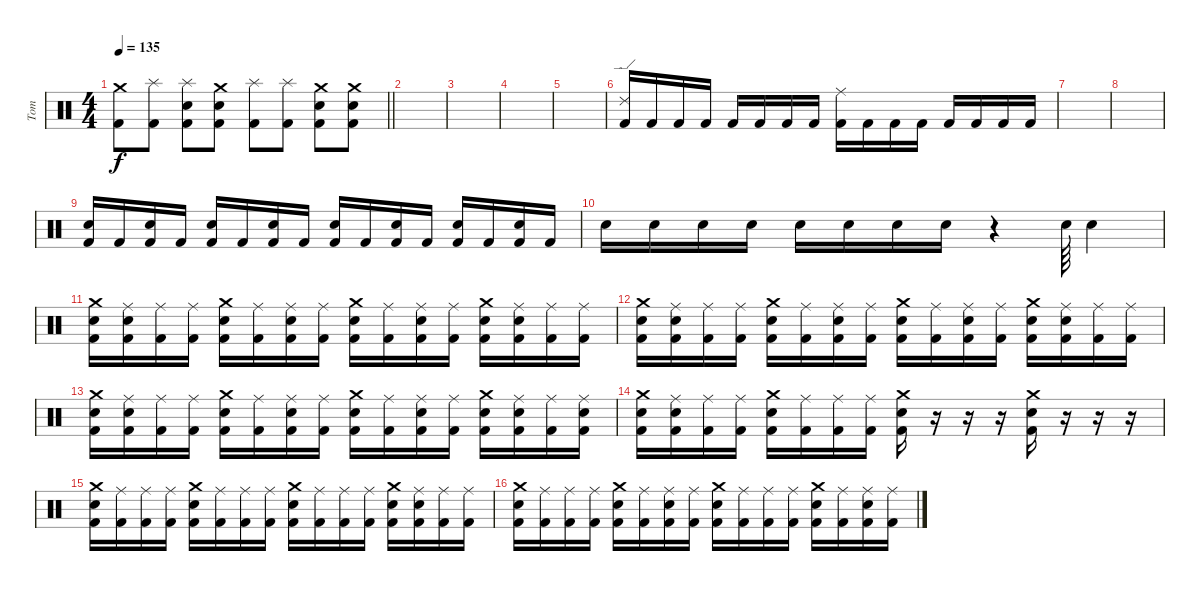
\track ("Tom" "Tom") {instrument percussion}
\staff {score}
\articulation defaults
\ts (4 4)
\tempo 135
\clef neutral
\barLineRight lightlight
\ks c
("Crash medium (hit)" "Kick (hit) 2").8{dy f} ("Splash (hit)" "Kick (hit) 2").8 ("Splash (hit)" "Electric Snare (hit)" "Kick (hit) 2").8 ("Crash medium (hit)" "Electric Snare (hit)" "Kick (hit) 2").8 ("Splash (hit)" "Kick (hit) 2").8 ("Splash (hit)" "Kick (hit) 2").8 ("Crash medium (hit)" "Electric Snare (hit)" "Kick (hit) 2").8 ("Crash medium (hit)" "Electric Snare (hit)" "Kick (hit) 2").8 |
|
|
|
|
("Ride (edge) 2" "Kick (hit) 2").16 "Kick (hit) 2".16 "Kick (hit) 2".16 "Kick (hit) 2".16 "Kick (hit) 2".16 "Kick (hit) 2".16 "Kick (hit) 2".16 "Kick (hit) 2".16 ("Ride (middle)" "Kick (hit) 2").16 "Kick (hit) 2".16 "Kick (hit) 2".16 "Kick (hit) 2".16 "Kick (hit) 2".16 "Kick (hit) 2".16 "Kick (hit) 2".16 "Kick (hit) 2".16 |
|
|
("Electric Snare (hit)" "Kick (hit) 2").16 "Kick (hit) 2".16 ("Electric Snare (hit)" "Kick (hit) 2").16 "Kick (hit) 2".16 ("Electric Snare (hit)" "Kick (hit) 2").16 "Kick (hit) 2".16 ("Electric Snare (hit)" "Kick (hit) 2").16 "Kick (hit) 2".16 ("Electric Snare (hit)" "Kick (hit) 2").16 "Kick (hit) 2".16 ("Electric Snare (hit)" "Kick (hit) 2").16 "Kick (hit) 2".16 ("Electric Snare (hit)" "Kick (hit) 2").16 "Kick (hit) 2".16 ("Electric Snare (hit)" "Kick (hit) 2").16 "Kick (hit) 2".16 |
"Electric Snare (hit)".16 "Electric Snare (hit)".16 "Electric Snare (hit)".16 "Electric Snare (hit)".16 "Electric Snare (hit)".16 "Electric Snare (hit)".16 "Electric Snare (hit)".16 "Electric Snare (hit)".16 r.4 "Electric Snare (hit)".64 "Electric Snare (hit)".4 |
("Crash medium (hit)" "Electric Snare (hit)" "Kick (hit) 2").16 ("Ride (middle)" "Electric Snare (hit)" "Kick (hit) 2").16 ("Ride (middle)" "Kick (hit) 2").16 ("Ride (middle)" "Kick (hit) 2").16 ("Crash medium (hit)" "Electric Snare (hit)" "Kick (hit) 2").16 ("Ride (middle)" "Kick (hit) 2").16 ("Ride (middle)" "Electric Snare (hit)" "Kick (hit) 2").16 ("Ride (middle)" "Kick (hit) 2").16 ("Crash medium (hit)" "Electric Snare (hit)" "Kick (hit) 2").16 ("Ride (middle)" "Kick (hit) 2").16 ("Ride (middle)" "Electric Snare (hit)" "Kick (hit) 2").16 ("Ride (middle)" "Kick (hit) 2").16 ("Crash medium (hit)" "Electric Snare (hit)" "Kick (hit) 2").16 ("Ride (middle)" "Electric Snare (hit)" "Kick (hit) 2").16 ("Ride (middle)" "Kick (hit) 2").16 ("Ride (middle)" "Kick (hit) 2").16 |
("Crash medium (hit)" "Electric Snare (hit)" "Kick (hit) 2").16 ("Ride (middle)" "Electric Snare (hit)" "Kick (hit) 2").16 ("Ride (middle)" "Kick (hit) 2").16 ("Ride (middle)" "Kick (hit) 2").16 ("Crash medium (hit)" "Electric Snare (hit)" "Kick (hit) 2").16 ("Ride (middle)" "Kick (hit) 2").16 ("Ride (middle)" "Electric Snare (hit)" "Kick (hit) 2").16 ("Ride (middle)" "Kick (hit) 2").16 ("Crash medium (hit)" "Electric Snare (hit)" "Kick (hit) 2").16 ("Ride (middle)" "Kick (hit) 2").16 ("Ride (middle)" "Electric Snare (hit)" "Kick (hit) 2").16 ("Ride (middle)" "Kick (hit) 2").16 ("Crash medium (hit)" "Electric Snare (hit)" "Kick (hit) 2").16 ("Ride (middle)" "Electric Snare (hit)" "Kick (hit) 2").16 ("Ride (middle)" "Kick (hit) 2").16 ("Ride (middle)" "Kick (hit) 2").16 |
("Crash medium (hit)" "Electric Snare (hit)" "Kick (hit) 2").16 ("Ride (middle)" "Electric Snare (hit)" "Kick (hit) 2").16 ("Ride (middle)" "Kick (hit) 2").16 ("Ride (middle)" "Kick (hit) 2").16 ("Crash medium (hit)" "Electric Snare (hit)" "Kick (hit) 2").16 ("Ride (middle)" "Kick (hit) 2").16 ("Ride (middle)" "Electric Snare (hit)" "Kick (hit) 2").16 ("Ride (middle)" "Kick (hit) 2").16 ("Crash medium (hit)" "Electric Snare (hit)" "Kick (hit) 2").16 ("Ride (middle)" "Kick (hit) 2").16 ("Ride (middle)" "Electric Snare (hit)" "Kick (hit) 2").16 ("Ride (middle)" "Kick (hit) 2").16 ("Crash medium (hit)" "Electric Snare (hit)" "Kick (hit) 2").16 ("Ride (middle)" "Electric Snare (hit)" "Kick (hit) 2").16 ("Ride (middle)" "Kick (hit) 2").16 ("Ride (middle)" "Electric Snare (hit)" "Kick (hit) 2").16 |
("Crash medium (hit)" "Electric Snare (hit)" "Kick (hit) 2").16 ("Ride (middle)" "Electric Snare (hit)" "Kick (hit) 2").16 ("Ride (middle)" "Kick (hit) 2").16 ("Ride (middle)" "Kick (hit) 2").16 ("Crash medium (hit)" "Electric Snare (hit)" "Kick (hit) 2").16 ("Ride (middle)" "Kick (hit) 2").16 ("Ride (middle)" "Kick (hit) 2").16 ("Ride (middle)" "Kick (hit) 2").16 ("Crash medium (hit)" "Electric Snare (hit)" "Kick (hit) 2").16 r.16 r.16 r.16 ("Crash medium (hit)" "Electric Snare (hit)" "Kick (hit) 2").16 r.16 r.16 r.16 |
("Crash medium (hit)" "Electric Snare (hit)" "Kick (hit) 2").16 ("Ride (middle)" "Kick (hit) 2").16 ("Ride (middle)" "Kick (hit) 2").16 ("Ride (middle)" "Kick (hit) 2").16 ("Crash medium (hit)" "Electric Snare (hit)" "Kick (hit) 2").16 ("Ride (middle)" "Kick (hit) 2").16 ("Ride (middle)" "Kick (hit) 2").16 ("Ride (middle)" "Kick (hit) 2").16 ("Crash medium (hit)" "Electric Snare (hit)" "Kick (hit) 2").16 ("Ride (middle)" "Kick (hit) 2").16 ("Ride (middle)" "Kick (hit) 2").16 ("Ride (middle)" "Kick (hit) 2").16 ("Crash medium (hit)" "Electric Snare (hit)" "Kick (hit) 2").16 ("Ride (middle)" "Electric Snare (hit)" "Kick (hit) 2").16 ("Ride (middle)" "Kick (hit) 2").16 ("Ride (middle)" "Kick (hit) 2").16 |
("Crash medium (hit)" "Electric Snare (hit)" "Kick (hit) 2").16 ("Ride (middle)" "Kick (hit) 2").16 ("Ride (middle)" "Kick (hit) 2").16 ("Ride (middle)" "Kick (hit) 2").16 ("Crash medium (hit)" "Electric Snare (hit)" "Kick (hit) 2").16 ("Ride (middle)" "Kick (hit) 2").16 ("Ride (middle)" "Electric Snare (hit)" "Kick (hit) 2").16 ("Ride (middle)" "Kick (hit) 2").16 ("Crash medium (hit)" "Electric Snare (hit)" "Kick (hit) 2").16 ("Ride (middle)" "Kick (hit) 2").16 ("Ride (middle)" "Kick (hit) 2").16 ("Ride (middle)" "Kick (hit) 2").16 ("Crash medium (hit)" "Electric Snare (hit)" "Kick (hit) 2").16 ("Ride (middle)" "Kick (hit) 2").16 ("Ride (middle)" "Electric Snare (hit)" "Kick (hit) 2").16 ("Ride (middle)" "Kick (hit) 2").16
